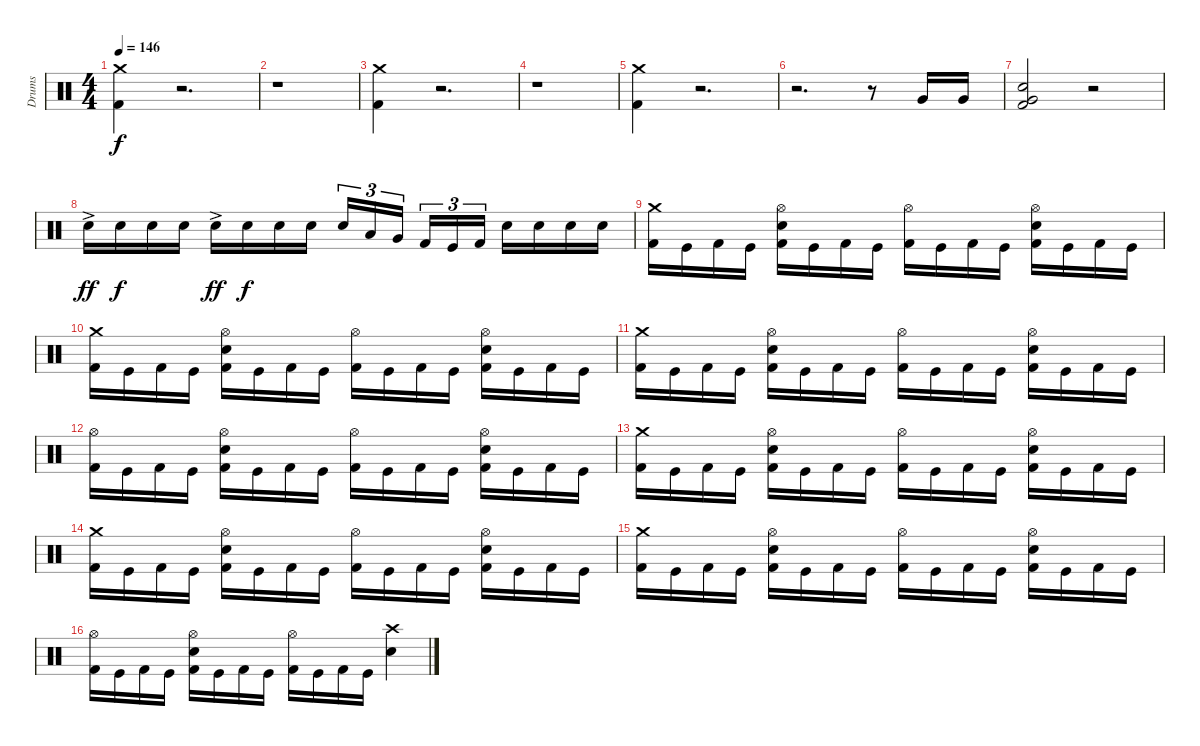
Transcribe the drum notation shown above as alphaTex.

\track ("Drums" "Drums") {instrument percussion}
\staff {score}
\articulation defaults
\ts (4 4)
\tempo 146
\clef neutral
\ks c
("Crash medium (hit)" "Kick (hit) 2").4{dy f} r.2{d} |
r.1 |
("Crash medium (hit)" "Kick (hit) 2").4 r.2{d} |
r.1 |
("Crash medium (hit)" "Kick (hit) 2").4 r.2{d} |
r.2{d} r.8 "Very Low Tom (hit)".16 "Very Low Tom (hit)".16 |
("Very Low Tom (hit)" "Snare (hit) 2" "Kick (hit) 2").2 r.2 |
"Snare (hit) 2"{ac}.16{dy ff} "Snare (hit) 2".16{dy f} "Snare (hit) 2".16 "Snare (hit) 2".16 "Snare (hit) 2"{ac}.16{dy ff} "Snare (hit) 2".16{dy f} "Snare (hit) 2".16 "Snare (hit) 2".16 "Snare (hit) 2".16{tu (3 2)} "Low Tom (hit)".16{tu (3 2)} "Very Low Tom (hit)".16{tu (3 2)} "Kick (hit) 2".16{tu (3 2)} "Kick (hit)".16{tu (3 2)} "Kick (hit) 2".16{tu (3 2)} "Snare (hit) 2".16 "Snare (hit) 2".16 "Snare (hit) 2".16 "Snare (hit) 2".16 |
("Crash medium (hit)" "Kick (hit) 2").16 "Kick (hit)".16 "Kick (hit) 2".16 "Kick (hit)".16 ("Hi-Hat (open)" "Snare (hit) 2" "Kick (hit) 2").16 "Kick (hit)".16 "Kick (hit) 2".16 "Kick (hit)".16 ("Hi-Hat (open)" "Kick (hit) 2").16 "Kick (hit)".16 "Kick (hit) 2".16 "Kick (hit)".16 ("Hi-Hat (open)" "Snare (hit) 2" "Kick (hit) 2").16 "Kick (hit)".16 "Kick (hit) 2".16 "Kick (hit)".16 |
("Crash medium (hit)" "Kick (hit) 2").16 "Kick (hit)".16 "Kick (hit) 2".16 "Kick (hit)".16 ("Hi-Hat (open)" "Snare (hit) 2" "Kick (hit) 2").16 "Kick (hit)".16 "Kick (hit) 2".16 "Kick (hit)".16 ("Hi-Hat (open)" "Kick (hit) 2").16 "Kick (hit)".16 "Kick (hit) 2".16 "Kick (hit)".16 ("Hi-Hat (open)" "Snare (hit) 2" "Kick (hit) 2").16 "Kick (hit)".16 "Kick (hit) 2".16 "Kick (hit)".16 |
("Crash medium (hit)" "Kick (hit) 2").16 "Kick (hit)".16 "Kick (hit) 2".16 "Kick (hit)".16 ("Hi-Hat (open)" "Snare (hit) 2" "Kick (hit) 2").16 "Kick (hit)".16 "Kick (hit) 2".16 "Kick (hit)".16 ("Hi-Hat (open)" "Kick (hit) 2").16 "Kick (hit)".16 "Kick (hit) 2".16 "Kick (hit)".16 ("Hi-Hat (open)" "Snare (hit) 2" "Kick (hit) 2").16 "Kick (hit)".16 "Kick (hit) 2".16 "Kick (hit)".16 |
("Hi-Hat (open)" "Kick (hit) 2").16 "Kick (hit)".16 "Kick (hit) 2".16 "Kick (hit)".16 ("Hi-Hat (open)" "Snare (hit) 2" "Kick (hit) 2").16 "Kick (hit)".16 "Kick (hit) 2".16 "Kick (hit)".16 ("Hi-Hat (open)" "Kick (hit) 2").16 "Kick (hit)".16 "Kick (hit) 2".16 "Kick (hit)".16 ("Hi-Hat (open)" "Snare (hit) 2" "Kick (hit) 2").16 "Kick (hit)".16 "Kick (hit) 2".16 "Kick (hit)".16 |
("Crash medium (hit)" "Kick (hit) 2").16 "Kick (hit)".16 "Kick (hit) 2".16 "Kick (hit)".16 ("Hi-Hat (open)" "Snare (hit) 2" "Kick (hit) 2").16 "Kick (hit)".16 "Kick (hit) 2".16 "Kick (hit)".16 ("Hi-Hat (open)" "Kick (hit) 2").16 "Kick (hit)".16 "Kick (hit) 2".16 "Kick (hit)".16 ("Hi-Hat (open)" "Snare (hit) 2" "Kick (hit) 2").16 "Kick (hit)".16 "Kick (hit) 2".16 "Kick (hit)".16 |
("Crash medium (hit)" "Kick (hit) 2").16 "Kick (hit)".16 "Kick (hit) 2".16 "Kick (hit)".16 ("Hi-Hat (open)" "Snare (hit) 2" "Kick (hit) 2").16 "Kick (hit)".16 "Kick (hit) 2".16 "Kick (hit)".16 ("Hi-Hat (open)" "Kick (hit) 2").16 "Kick (hit)".16 "Kick (hit) 2".16 "Kick (hit)".16 ("Hi-Hat (open)" "Snare (hit) 2" "Kick (hit) 2").16 "Kick (hit)".16 "Kick (hit) 2".16 "Kick (hit)".16 |
("Crash medium (hit)" "Kick (hit) 2").16 "Kick (hit)".16 "Kick (hit) 2".16 "Kick (hit)".16 ("Hi-Hat (open)" "Snare (hit) 2" "Kick (hit) 2").16 "Kick (hit)".16 "Kick (hit) 2".16 "Kick (hit)".16 ("Hi-Hat (open)" "Kick (hit) 2").16 "Kick (hit)".16 "Kick (hit) 2".16 "Kick (hit)".16 ("Hi-Hat (open)" "Snare (hit) 2" "Kick (hit) 2").16 "Kick (hit)".16 "Kick (hit) 2".16 "Kick (hit)".16 |
("Hi-Hat (open)" "Kick (hit) 2").16 "Kick (hit)".16 "Kick (hit) 2".16 "Kick (hit)".16 ("Hi-Hat (open)" "Snare (hit) 2" "Kick (hit) 2").16 "Kick (hit)".16 "Kick (hit) 2".16 "Kick (hit)".16 ("Hi-Hat (open)" "Kick (hit) 2").16 "Kick (hit)".16 "Kick (hit) 2".16 "Kick (hit)".16 ("Crash high (hit)" "Snare (hit) 2").4
